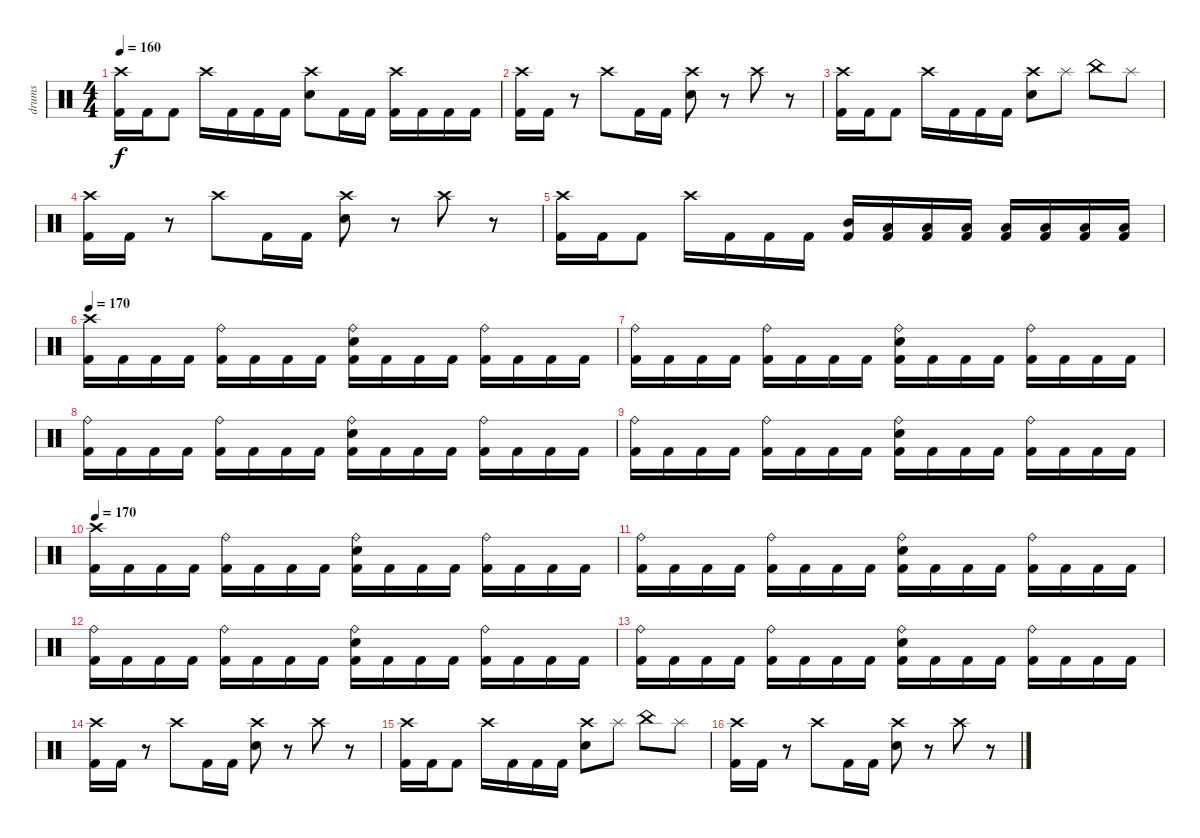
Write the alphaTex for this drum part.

\track ("drums" "drums") {instrument percussion}
\staff {score}
\articulation defaults
\ts (4 4)
\tempo 160
\clef neutral
\ks c
("Crash high (hit)" "Kick (hit) 2").16{dy f} "Kick (hit) 2".16 "Kick (hit) 2".8 "Crash high (hit)".16 "Kick (hit) 2".16 "Kick (hit) 2".16 "Kick (hit) 2".16 ("Crash high (hit)" "Electric Snare (hit)").8 "Kick (hit) 2".16 "Kick (hit) 2".16 ("Crash high (hit)" "Kick (hit) 2").16 "Kick (hit) 2".16 "Kick (hit) 2".16 "Kick (hit) 2".16 |
("Crash high (hit)" "Kick (hit) 2").16 "Kick (hit) 2".16 r.8 "Crash high (hit)".8 "Kick (hit) 2".16 "Kick (hit) 2".16 ("Crash high (hit)" "Electric Snare (hit)").8 r.8 "Crash high (hit)".8 r.8 |
("Crash high (hit)" "Kick (hit) 2").16 "Kick (hit) 2".16 "Kick (hit) 2".8 "Crash high (hit)".16 "Kick (hit) 2".16 "Kick (hit) 2".16 "Kick (hit) 2".16 ("Crash high (hit)" "Electric Snare (hit)").8 "Splash (hit)".8 "China (hit)".8 "Splash (hit)".8 |
("Crash high (hit)" "Kick (hit) 2").16 "Kick (hit) 2".16 r.8 "Crash high (hit)".8 "Kick (hit) 2".16 "Kick (hit) 2".16 ("Crash high (hit)" "Electric Snare (hit)").8 r.8 "Crash high (hit)".8 r.8 |
("Crash high (hit)" "Kick (hit) 2").16 "Kick (hit) 2".16 "Kick (hit) 2".8 "Crash high (hit)".16 "Kick (hit) 2".16 "Kick (hit) 2".16 "Kick (hit) 2".16 ("Mid Tom (hit)" "Kick (hit) 2").16 ("Low Tom (hit)" "Kick (hit) 2").16 ("Low Floor Tom (hit)" "Kick (hit) 2").16 ("Low Floor Tom (hit)" "Kick (hit) 2").16 ("Low Tom (hit)" "Kick (hit) 2").16 ("Low Floor Tom (hit)" "Kick (hit) 2").16 ("Low Floor Tom (hit)" "Kick (hit) 2").16 ("Low Floor Tom (hit)" "Kick (hit) 2").16 |
\tempo 170
("Crash high (hit)" "Kick (hit) 2").16 "Kick (hit) 2".16 "Kick (hit) 2".16 "Kick (hit) 2".16 ("Ride (bell)" "Kick (hit) 2").16 "Kick (hit) 2".16 "Kick (hit) 2".16 "Kick (hit) 2".16 ("Ride (bell)" "Electric Snare (hit)" "Kick (hit) 2").16 "Kick (hit) 2".16 "Kick (hit) 2".16 "Kick (hit) 2".16 ("Ride (bell)" "Kick (hit) 2").16 "Kick (hit) 2".16 "Kick (hit) 2".16 "Kick (hit) 2".16 |
("Ride (bell)" "Kick (hit) 2").16 "Kick (hit) 2".16 "Kick (hit) 2".16 "Kick (hit) 2".16 ("Ride (bell)" "Kick (hit) 2").16 "Kick (hit) 2".16 "Kick (hit) 2".16 "Kick (hit) 2".16 ("Ride (bell)" "Electric Snare (hit)" "Kick (hit) 2").16 "Kick (hit) 2".16 "Kick (hit) 2".16 "Kick (hit) 2".16 ("Ride (bell)" "Kick (hit) 2").16 "Kick (hit) 2".16 "Kick (hit) 2".16 "Kick (hit) 2".16 |
("Ride (bell)" "Kick (hit) 2").16 "Kick (hit) 2".16 "Kick (hit) 2".16 "Kick (hit) 2".16 ("Ride (bell)" "Kick (hit) 2").16 "Kick (hit) 2".16 "Kick (hit) 2".16 "Kick (hit) 2".16 ("Ride (bell)" "Electric Snare (hit)" "Kick (hit) 2").16 "Kick (hit) 2".16 "Kick (hit) 2".16 "Kick (hit) 2".16 ("Ride (bell)" "Kick (hit) 2").16 "Kick (hit) 2".16 "Kick (hit) 2".16 "Kick (hit) 2".16 |
("Ride (bell)" "Kick (hit) 2").16 "Kick (hit) 2".16 "Kick (hit) 2".16 "Kick (hit) 2".16 ("Ride (bell)" "Kick (hit) 2").16 "Kick (hit) 2".16 "Kick (hit) 2".16 "Kick (hit) 2".16 ("Ride (bell)" "Electric Snare (hit)" "Kick (hit) 2").16 "Kick (hit) 2".16 "Kick (hit) 2".16 "Kick (hit) 2".16 ("Ride (bell)" "Kick (hit) 2").16 "Kick (hit) 2".16 "Kick (hit) 2".16 "Kick (hit) 2".16 |
\tempo 170
("Crash high (hit)" "Kick (hit) 2").16 "Kick (hit) 2".16 "Kick (hit) 2".16 "Kick (hit) 2".16 ("Ride (bell)" "Kick (hit) 2").16 "Kick (hit) 2".16 "Kick (hit) 2".16 "Kick (hit) 2".16 ("Ride (bell)" "Electric Snare (hit)" "Kick (hit) 2").16 "Kick (hit) 2".16 "Kick (hit) 2".16 "Kick (hit) 2".16 ("Ride (bell)" "Kick (hit) 2").16 "Kick (hit) 2".16 "Kick (hit) 2".16 "Kick (hit) 2".16 |
("Ride (bell)" "Kick (hit) 2").16 "Kick (hit) 2".16 "Kick (hit) 2".16 "Kick (hit) 2".16 ("Ride (bell)" "Kick (hit) 2").16 "Kick (hit) 2".16 "Kick (hit) 2".16 "Kick (hit) 2".16 ("Ride (bell)" "Electric Snare (hit)" "Kick (hit) 2").16 "Kick (hit) 2".16 "Kick (hit) 2".16 "Kick (hit) 2".16 ("Ride (bell)" "Kick (hit) 2").16 "Kick (hit) 2".16 "Kick (hit) 2".16 "Kick (hit) 2".16 |
("Ride (bell)" "Kick (hit) 2").16 "Kick (hit) 2".16 "Kick (hit) 2".16 "Kick (hit) 2".16 ("Ride (bell)" "Kick (hit) 2").16 "Kick (hit) 2".16 "Kick (hit) 2".16 "Kick (hit) 2".16 ("Ride (bell)" "Electric Snare (hit)" "Kick (hit) 2").16 "Kick (hit) 2".16 "Kick (hit) 2".16 "Kick (hit) 2".16 ("Ride (bell)" "Kick (hit) 2").16 "Kick (hit) 2".16 "Kick (hit) 2".16 "Kick (hit) 2".16 |
("Ride (bell)" "Kick (hit) 2").16 "Kick (hit) 2".16 "Kick (hit) 2".16 "Kick (hit) 2".16 ("Ride (bell)" "Kick (hit) 2").16 "Kick (hit) 2".16 "Kick (hit) 2".16 "Kick (hit) 2".16 ("Ride (bell)" "Electric Snare (hit)" "Kick (hit) 2").16 "Kick (hit) 2".16 "Kick (hit) 2".16 "Kick (hit) 2".16 ("Ride (bell)" "Kick (hit) 2").16 "Kick (hit) 2".16 "Kick (hit) 2".16 "Kick (hit) 2".16 |
("Crash high (hit)" "Kick (hit) 2").16 "Kick (hit) 2".16 r.8 "Crash high (hit)".8 "Kick (hit) 2".16 "Kick (hit) 2".16 ("Crash high (hit)" "Electric Snare (hit)").8 r.8 "Crash high (hit)".8 r.8 |
("Crash high (hit)" "Kick (hit) 2").16 "Kick (hit) 2".16 "Kick (hit) 2".8 "Crash high (hit)".16 "Kick (hit) 2".16 "Kick (hit) 2".16 "Kick (hit) 2".16 ("Crash high (hit)" "Electric Snare (hit)").8 "Splash (hit)".8 "China (hit)".8 "Splash (hit)".8 |
("Crash high (hit)" "Kick (hit) 2").16 "Kick (hit) 2".16 r.8 "Crash high (hit)".8 "Kick (hit) 2".16 "Kick (hit) 2".16 ("Crash high (hit)" "Electric Snare (hit)").8 r.8 "Crash high (hit)".8 r.8
